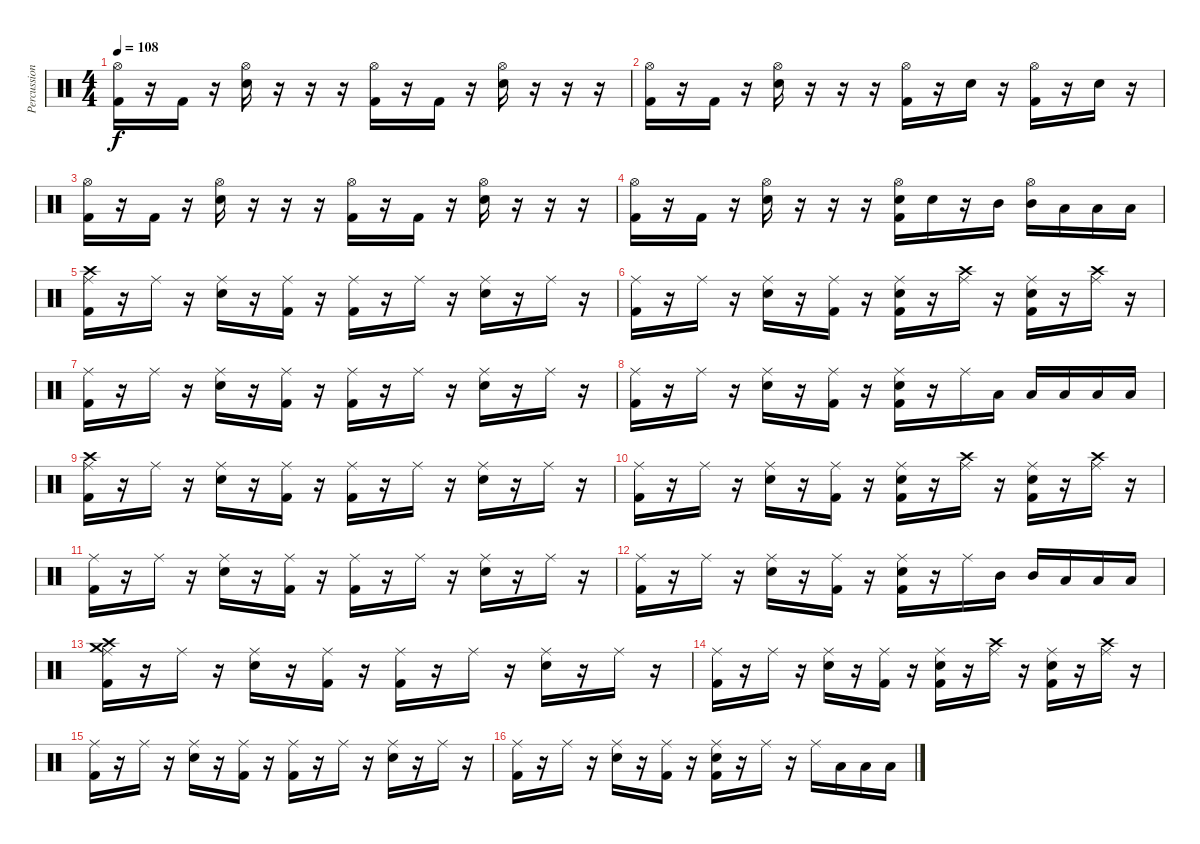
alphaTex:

\track ("Percussion" "Percussion") {instrument percussion}
\staff {score}
\articulation defaults
\ts (4 4)
\tempo 108
\clef neutral
\ks c
("Hi-Hat (open)" "Kick (hit) 2").16{dy f} r.16 "Kick (hit) 2".16 r.16 ("Snare (hit) 2" "Hi-Hat (open)").16 r.16 r.16 r.16 ("Hi-Hat (open)" "Kick (hit) 2").16 r.16 "Kick (hit) 2".16 r.16 ("Snare (hit) 2" "Hi-Hat (open)").16 r.16 r.16 r.16 |
("Hi-Hat (open)" "Kick (hit) 2").16 r.16 "Kick (hit) 2".16 r.16 ("Snare (hit) 2" "Hi-Hat (open)").16 r.16 r.16 r.16 ("Hi-Hat (open)" "Kick (hit) 2").16 r.16 "Snare (hit) 2".16 r.16 ("Hi-Hat (open)" "Kick (hit) 2").16 r.16 "Snare (hit) 2".16 r.16 |
("Hi-Hat (open)" "Kick (hit) 2").16 r.16 "Kick (hit) 2".16 r.16 ("Snare (hit) 2" "Hi-Hat (open)").16 r.16 r.16 r.16 ("Hi-Hat (open)" "Kick (hit) 2").16 r.16 "Kick (hit) 2".16 r.16 ("Snare (hit) 2" "Hi-Hat (open)").16 r.16 r.16 r.16 |
("Hi-Hat (open)" "Kick (hit) 2").16 r.16 "Kick (hit) 2".16 r.16 ("Snare (hit) 2" "Hi-Hat (open)").16 r.16 r.16 r.16 ("Snare (hit) 2" "Hi-Hat (open)" "Kick (hit) 2").16 "Snare (hit) 2".16 r.16 "Mid Tom (hit)".16 ("Mid Tom (hit)" "Hi-Hat (open)").16 "Low Tom (hit)".16 "Low Tom (hit)".16 "Low Floor Tom (hit)".16 |
("Crash high (hit)" "Ride (middle)" "Kick (hit) 2").16 r.16 "Ride (middle)".16 r.16 ("Snare (hit) 2" "Ride (middle)").16 r.16 ("Ride (middle)" "Kick (hit) 2").16 r.16 ("Ride (middle)" "Kick (hit) 2").16 r.16 "Ride (middle)".16 r.16 ("Snare (hit) 2" "Ride (middle)").16 r.16 "Ride (middle)".16 r.16 |
("Ride (middle)" "Kick (hit) 2").16 r.16 "Ride (middle)".16 r.16 ("Snare (hit) 2" "Ride (middle)").16 r.16 ("Ride (middle)" "Kick (hit) 2").16 r.16 ("Snare (hit) 2" "Ride (middle)" "Kick (hit) 2").16 r.16 ("Crash high (hit)" "Ride (middle)").16 r.16 ("Snare (hit) 2" "Ride (middle)" "Kick (hit) 2").16 r.16 ("Crash high (hit)" "Ride (middle)").16 r.16 |
("Ride (middle)" "Kick (hit) 2").16 r.16 "Ride (middle)".16 r.16 ("Snare (hit) 2" "Ride (middle)").16 r.16 ("Ride (middle)" "Kick (hit) 2").16 r.16 ("Ride (middle)" "Kick (hit) 2").16 r.16 "Ride (middle)".16 r.16 ("Snare (hit) 2" "Ride (middle)").16 r.16 "Ride (middle)".16 r.16 |
("Ride (middle)" "Kick (hit) 2").16 r.16 "Ride (middle)".16 r.16 ("Snare (hit) 2" "Ride (middle)").16 r.16 ("Ride (middle)" "Kick (hit) 2").16 r.16 ("Snare (hit) 2" "Ride (middle)" "Kick (hit) 2").16 r.16 "Ride (middle)".16 "Low Tom (hit)".16 "Low Tom (hit)".16 "Low Floor Tom (hit)".16 "Low Floor Tom (hit)".16 "Low Floor Tom (hit)".16 |
("Crash high (hit)" "Ride (middle)" "Kick (hit) 2").16 r.16 "Ride (middle)".16 r.16 ("Snare (hit) 2" "Ride (middle)").16 r.16 ("Ride (middle)" "Kick (hit) 2").16 r.16 ("Ride (middle)" "Kick (hit) 2").16 r.16 "Ride (middle)".16 r.16 ("Snare (hit) 2" "Ride (middle)").16 r.16 "Ride (middle)".16 r.16 |
("Ride (middle)" "Kick (hit) 2").16 r.16 "Ride (middle)".16 r.16 ("Snare (hit) 2" "Ride (middle)").16 r.16 ("Ride (middle)" "Kick (hit) 2").16 r.16 ("Snare (hit) 2" "Ride (middle)" "Kick (hit) 2").16 r.16 ("Crash high (hit)" "Ride (middle)").16 r.16 ("Snare (hit) 2" "Ride (middle)" "Kick (hit) 2").16 r.16 ("Crash high (hit)" "Ride (middle)").16 r.16 |
("Ride (middle)" "Kick (hit) 2").16 r.16 "Ride (middle)".16 r.16 ("Snare (hit) 2" "Ride (middle)").16 r.16 ("Ride (middle)" "Kick (hit) 2").16 r.16 ("Ride (middle)" "Kick (hit) 2").16 r.16 "Ride (middle)".16 r.16 ("Snare (hit) 2" "Ride (middle)").16 r.16 "Ride (middle)".16 r.16 |
("Ride (middle)" "Kick (hit) 2").16 r.16 "Ride (middle)".16 r.16 ("Snare (hit) 2" "Ride (middle)").16 r.16 ("Ride (middle)" "Kick (hit) 2").16 r.16 ("Snare (hit) 2" "Ride (middle)" "Kick (hit) 2").16 r.16 "Ride (middle)".16 "Mid Tom (hit)".16 "Mid Tom (hit)".16 "Low Tom (hit)".16 "Low Tom (hit)".16 "Low Tom (hit)".16 |
("Crash high (hit)" "Crash medium (hit)" "Ride (middle)" "Kick (hit) 2").16 r.16 "Ride (middle)".16 r.16 ("Snare (hit) 2" "Ride (middle)").16 r.16 ("Ride (middle)" "Kick (hit) 2").16 r.16 ("Ride (middle)" "Kick (hit) 2").16 r.16 "Ride (middle)".16 r.16 ("Snare (hit) 2" "Ride (middle)").16 r.16 "Ride (middle)".16 r.16 |
("Ride (middle)" "Kick (hit) 2").16 r.16 "Ride (middle)".16 r.16 ("Snare (hit) 2" "Ride (middle)").16 r.16 ("Ride (middle)" "Kick (hit) 2").16 r.16 ("Snare (hit) 2" "Ride (middle)" "Kick (hit) 2").16 r.16 ("Crash high (hit)" "Ride (middle)").16 r.16 ("Snare (hit) 2" "Ride (middle)" "Kick (hit) 2").16 r.16 ("Crash high (hit)" "Ride (middle)").16 r.16 |
("Ride (middle)" "Kick (hit) 2").16 r.16 "Ride (middle)".16 r.16 ("Snare (hit) 2" "Ride (middle)").16 r.16 ("Ride (middle)" "Kick (hit) 2").16 r.16 ("Ride (middle)" "Kick (hit) 2").16 r.16 "Ride (middle)".16 r.16 ("Snare (hit) 2" "Ride (middle)").16 r.16 "Ride (middle)".16 r.16 |
("Ride (middle)" "Kick (hit) 2").16 r.16 "Ride (middle)".16 r.16 ("Snare (hit) 2" "Ride (middle)").16 r.16 ("Ride (middle)" "Kick (hit) 2").16 r.16 ("Snare (hit) 2" "Ride (middle)" "Kick (hit) 2").16 r.16 "Ride (middle)".16 r.16 "Ride (middle)".16 "Low Tom (hit)".16 "Low Tom (hit)".16 "Low Tom (hit)".16
